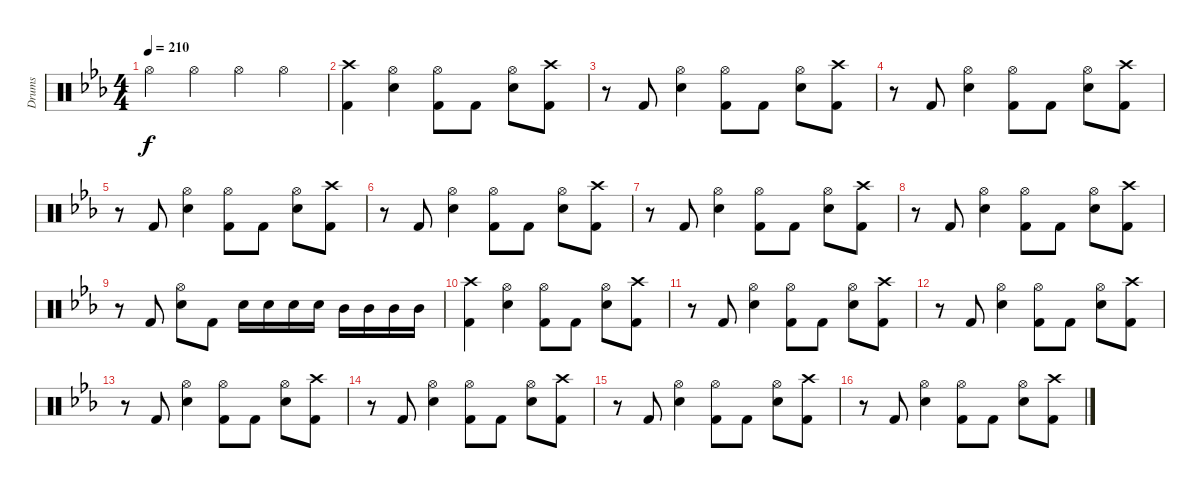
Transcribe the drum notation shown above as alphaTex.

\track ("Drums" "Drums") {instrument percussion}
\staff {score}
\articulation defaults
\ts (4 4)
\tempo 210
\clef neutral
\ks cminor "Hi-Hat (open)".4{dy f} "Hi-Hat (open)".4 "Hi-Hat (open)".4 "Hi-Hat (open)".4
|
("Crash high (hit)" "Kick (hit) 2").4 ("Hi-Hat (open)" "Snare (hit) 2").4 ("Kick (hit) 2" "Hi-Hat (open)").8 "Kick (hit) 2".8 ("Hi-Hat (open)" "Snare (hit) 2").8 ("Crash high (hit)" "Kick (hit) 2").8 |
r.8 "Kick (hit) 2".8 ("Hi-Hat (open)" "Snare (hit) 2").4 ("Hi-Hat (open)" "Kick (hit) 2").8 "Kick (hit) 2".8 ("Hi-Hat (open)" "Snare (hit) 2").8 ("Kick (hit) 2" "Crash high (hit)").8 |
r.8 "Kick (hit) 2".8 ("Hi-Hat (open)" "Snare (hit) 2").4 ("Hi-Hat (open)" "Kick (hit) 2").8 "Kick (hit) 2".8 ("Hi-Hat (open)" "Snare (hit) 2").8 ("Kick (hit) 2" "Crash high (hit)").8 |
r.8 "Kick (hit) 2".8 ("Hi-Hat (open)" "Snare (hit) 2").4 ("Hi-Hat (open)" "Kick (hit) 2").8 "Kick (hit) 2".8 ("Hi-Hat (open)" "Snare (hit) 2").8 ("Kick (hit) 2" "Crash high (hit)").8 |
r.8 "Kick (hit) 2".8 ("Hi-Hat (open)" "Snare (hit) 2").4 ("Hi-Hat (open)" "Kick (hit) 2").8 "Kick (hit) 2".8 ("Hi-Hat (open)" "Snare (hit) 2").8 ("Kick (hit) 2" "Crash high (hit)").8 |
r.8 "Kick (hit) 2".8 ("Hi-Hat (open)" "Snare (hit) 2").4 ("Hi-Hat (open)" "Kick (hit) 2").8 "Kick (hit) 2".8 ("Hi-Hat (open)" "Snare (hit) 2").8 ("Kick (hit) 2" "Crash high (hit)").8 |
r.8 "Kick (hit) 2".8 ("Hi-Hat (open)" "Snare (hit) 2").4 ("Hi-Hat (open)" "Kick (hit) 2").8 "Kick (hit) 2".8 ("Hi-Hat (open)" "Snare (hit) 2").8 ("Kick (hit) 2" "Crash high (hit)").8 |
r.8 "Kick (hit) 2".8 ("Hi-Hat (open)" "Snare (hit) 2").8 "Kick (hit) 2".8 "Snare (hit) 2".16 "Snare (hit) 2".16 "Snare (hit) 2".16 "Snare (hit) 2".16 "Mid Tom (hit)".16 "Mid Tom (hit)".16 "Mid Tom (hit)".16 "Mid Tom (hit)".16 |
("Crash high (hit)" "Kick (hit) 2").4 ("Hi-Hat (open)" "Snare (hit) 2").4 ("Kick (hit) 2" "Hi-Hat (open)").8 "Kick (hit) 2".8 ("Hi-Hat (open)" "Snare (hit) 2").8 ("Crash high (hit)" "Kick (hit) 2").8 |
r.8 "Kick (hit) 2".8 ("Hi-Hat (open)" "Snare (hit) 2").4 ("Hi-Hat (open)" "Kick (hit) 2").8 "Kick (hit) 2".8 ("Hi-Hat (open)" "Snare (hit) 2").8 ("Kick (hit) 2" "Crash high (hit)").8 |
r.8 "Kick (hit) 2".8 ("Hi-Hat (open)" "Snare (hit) 2").4 ("Hi-Hat (open)" "Kick (hit) 2").8 "Kick (hit) 2".8 ("Hi-Hat (open)" "Snare (hit) 2").8 ("Kick (hit) 2" "Crash high (hit)").8 |
r.8 "Kick (hit) 2".8 ("Hi-Hat (open)" "Snare (hit) 2").4 ("Hi-Hat (open)" "Kick (hit) 2").8 "Kick (hit) 2".8 ("Hi-Hat (open)" "Snare (hit) 2").8 ("Kick (hit) 2" "Crash high (hit)").8 |
r.8 "Kick (hit) 2".8 ("Hi-Hat (open)" "Snare (hit) 2").4 ("Hi-Hat (open)" "Kick (hit) 2").8 "Kick (hit) 2".8 ("Hi-Hat (open)" "Snare (hit) 2").8 ("Kick (hit) 2" "Crash high (hit)").8 |
r.8 "Kick (hit) 2".8 ("Hi-Hat (open)" "Snare (hit) 2").4 ("Hi-Hat (open)" "Kick (hit) 2").8 "Kick (hit) 2".8 ("Hi-Hat (open)" "Snare (hit) 2").8 ("Kick (hit) 2" "Crash high (hit)").8 |
r.8 "Kick (hit) 2".8 ("Hi-Hat (open)" "Snare (hit) 2").4 ("Hi-Hat (open)" "Kick (hit) 2").8 "Kick (hit) 2".8 ("Hi-Hat (open)" "Snare (hit) 2").8 ("Kick (hit) 2" "Crash high (hit)").8
